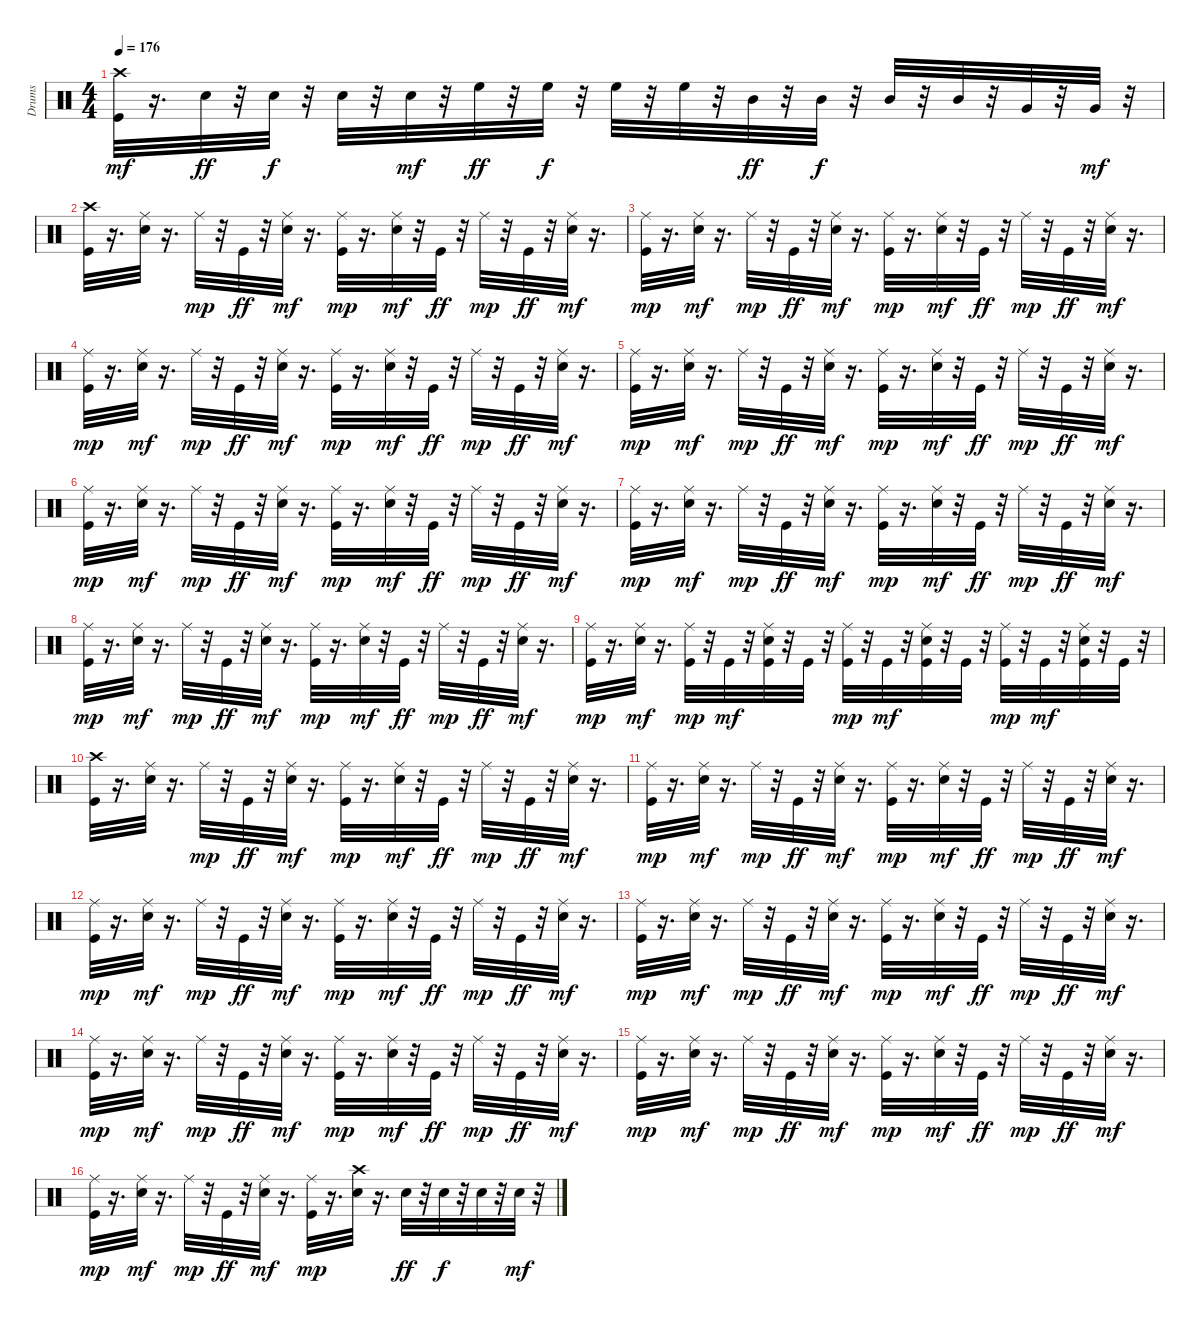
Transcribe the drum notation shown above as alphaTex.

\track ("Drums" "Drums") {instrument percussion}
\staff {score}
\articulation defaults
\ts (4 4)
\tempo 176
\clef neutral
\ks c
("Kick (hit)" "Crash high (hit)").32{dy mf} r.16{d} "Snare (hit) 2".32{dy ff} r.32 "Snare (hit) 2".32{dy f} r.32 "Snare (hit) 2".32 r.32 "Snare (hit) 2".32{dy mf} r.32 "High Floor Tom (hit)".32{dy ff} r.32 "High Floor Tom (hit)".32{dy f} r.32 "High Floor Tom (hit)".32 r.32 "High Floor Tom (hit)".32 r.32 "Mid Tom (hit)".32{dy ff} r.32 "Mid Tom (hit)".32{dy f} r.32 "Mid Tom (hit)".32 r.32 "Mid Tom (hit)".32 r.32 "Very Low Tom (hit)".32 r.32 "Very Low Tom (hit)".32{dy mf} r.32 |
("Kick (hit)" "Crash high (hit)").32 r.16{d} ("Snare (hit) 2" "Ride (middle)").32 r.16{d} "Ride (middle)".32{dy mp} r.32 "Kick (hit)".32{dy ff} r.32 ("Snare (hit) 2" "Ride (middle)").32{dy mf} r.16{d} ("Kick (hit)" "Ride (middle)").32{dy mp} r.16{d} ("Snare (hit) 2" "Ride (middle)").32{dy mf} r.32 "Kick (hit)".32{dy ff} r.32 "Ride (middle)".32{dy mp} r.32 "Kick (hit)".32{dy ff} r.32 ("Snare (hit) 2" "Ride (middle)").32{dy mf} r.16{d} |
("Kick (hit)" "Ride (middle)").32{dy mp} r.16{d} ("Snare (hit) 2" "Ride (middle)").32{dy mf} r.16{d} "Ride (middle)".32{dy mp} r.32 "Kick (hit)".32{dy ff} r.32 ("Snare (hit) 2" "Ride (middle)").32{dy mf} r.16{d} ("Kick (hit)" "Ride (middle)").32{dy mp} r.16{d} ("Snare (hit) 2" "Ride (middle)").32{dy mf} r.32 "Kick (hit)".32{dy ff} r.32 "Ride (middle)".32{dy mp} r.32 "Kick (hit)".32{dy ff} r.32 ("Snare (hit) 2" "Ride (middle)").32{dy mf} r.16{d} |
("Kick (hit)" "Ride (middle)").32{dy mp} r.16{d} ("Snare (hit) 2" "Ride (middle)").32{dy mf} r.16{d} "Ride (middle)".32{dy mp} r.32 "Kick (hit)".32{dy ff} r.32 ("Snare (hit) 2" "Ride (middle)").32{dy mf} r.16{d} ("Kick (hit)" "Ride (middle)").32{dy mp} r.16{d} ("Snare (hit) 2" "Ride (middle)").32{dy mf} r.32 "Kick (hit)".32{dy ff} r.32 "Ride (middle)".32{dy mp} r.32 "Kick (hit)".32{dy ff} r.32 ("Snare (hit) 2" "Ride (middle)").32{dy mf} r.16{d} |
("Kick (hit)" "Ride (middle)").32{dy mp} r.16{d} ("Snare (hit) 2" "Ride (middle)").32{dy mf} r.16{d} "Ride (middle)".32{dy mp} r.32 "Kick (hit)".32{dy ff} r.32 ("Snare (hit) 2" "Ride (middle)").32{dy mf} r.16{d} ("Kick (hit)" "Ride (middle)").32{dy mp} r.16{d} ("Snare (hit) 2" "Ride (middle)").32{dy mf} r.32 "Kick (hit)".32{dy ff} r.32 "Ride (middle)".32{dy mp} r.32 "Kick (hit)".32{dy ff} r.32 ("Snare (hit) 2" "Ride (middle)").32{dy mf} r.16{d} |
("Kick (hit)" "Ride (middle)").32{dy mp} r.16{d} ("Snare (hit) 2" "Ride (middle)").32{dy mf} r.16{d} "Ride (middle)".32{dy mp} r.32 "Kick (hit)".32{dy ff} r.32 ("Snare (hit) 2" "Ride (middle)").32{dy mf} r.16{d} ("Kick (hit)" "Ride (middle)").32{dy mp} r.16{d} ("Snare (hit) 2" "Ride (middle)").32{dy mf} r.32 "Kick (hit)".32{dy ff} r.32 "Ride (middle)".32{dy mp} r.32 "Kick (hit)".32{dy ff} r.32 ("Snare (hit) 2" "Ride (middle)").32{dy mf} r.16{d} |
("Kick (hit)" "Ride (middle)").32{dy mp} r.16{d} ("Snare (hit) 2" "Ride (middle)").32{dy mf} r.16{d} "Ride (middle)".32{dy mp} r.32 "Kick (hit)".32{dy ff} r.32 ("Snare (hit) 2" "Ride (middle)").32{dy mf} r.16{d} ("Kick (hit)" "Ride (middle)").32{dy mp} r.16{d} ("Snare (hit) 2" "Ride (middle)").32{dy mf} r.32 "Kick (hit)".32{dy ff} r.32 "Ride (middle)".32{dy mp} r.32 "Kick (hit)".32{dy ff} r.32 ("Snare (hit) 2" "Ride (middle)").32{dy mf} r.16{d} |
("Kick (hit)" "Ride (middle)").32{dy mp} r.16{d} ("Snare (hit) 2" "Ride (middle)").32{dy mf} r.16{d} "Ride (middle)".32{dy mp} r.32 "Kick (hit)".32{dy ff} r.32 ("Snare (hit) 2" "Ride (middle)").32{dy mf} r.16{d} ("Kick (hit)" "Ride (middle)").32{dy mp} r.16{d} ("Snare (hit) 2" "Ride (middle)").32{dy mf} r.32 "Kick (hit)".32{dy ff} r.32 "Ride (middle)".32{dy mp} r.32 "Kick (hit)".32{dy ff} r.32 ("Snare (hit) 2" "Ride (middle)").32{dy mf} r.16{d} |
("Kick (hit)" "Ride (middle)").32{dy mp} r.16{d} ("Snare (hit) 2" "Ride (middle)").32{dy mf} r.16{d} ("Kick (hit)" "Ride (middle)").32{dy mp} r.32 "Kick (hit)".32{dy mf} r.32 ("Kick (hit)" "Snare (hit) 2" "Ride (middle)").32 r.32 "Kick (hit)".32 r.32 ("Kick (hit)" "Ride (middle)").32{dy mp} r.32 "Kick (hit)".32{dy mf} r.32 ("Kick (hit)" "Snare (hit) 2" "Ride (middle)").32 r.32 "Kick (hit)".32 r.32 ("Kick (hit)" "Ride (middle)").32{dy mp} r.32 "Kick (hit)".32{dy mf} r.32 ("Kick (hit)" "Snare (hit) 2" "Ride (middle)").32 r.32 "Kick (hit)".32 r.32 |
("Kick (hit)" "Crash high (hit)").32 r.16{d} ("Snare (hit) 2" "Ride (middle)").32 r.16{d} "Ride (middle)".32{dy mp} r.32 "Kick (hit)".32{dy ff} r.32 ("Snare (hit) 2" "Ride (middle)").32{dy mf} r.16{d} ("Kick (hit)" "Ride (middle)").32{dy mp} r.16{d} ("Snare (hit) 2" "Ride (middle)").32{dy mf} r.32 "Kick (hit)".32{dy ff} r.32 "Ride (middle)".32{dy mp} r.32 "Kick (hit)".32{dy ff} r.32 ("Snare (hit) 2" "Ride (middle)").32{dy mf} r.16{d} |
("Kick (hit)" "Ride (middle)").32{dy mp} r.16{d} ("Snare (hit) 2" "Ride (middle)").32{dy mf} r.16{d} "Ride (middle)".32{dy mp} r.32 "Kick (hit)".32{dy ff} r.32 ("Snare (hit) 2" "Ride (middle)").32{dy mf} r.16{d} ("Kick (hit)" "Ride (middle)").32{dy mp} r.16{d} ("Snare (hit) 2" "Ride (middle)").32{dy mf} r.32 "Kick (hit)".32{dy ff} r.32 "Ride (middle)".32{dy mp} r.32 "Kick (hit)".32{dy ff} r.32 ("Snare (hit) 2" "Ride (middle)").32{dy mf} r.16{d} |
("Kick (hit)" "Ride (middle)").32{dy mp} r.16{d} ("Snare (hit) 2" "Ride (middle)").32{dy mf} r.16{d} "Ride (middle)".32{dy mp} r.32 "Kick (hit)".32{dy ff} r.32 ("Snare (hit) 2" "Ride (middle)").32{dy mf} r.16{d} ("Kick (hit)" "Ride (middle)").32{dy mp} r.16{d} ("Snare (hit) 2" "Ride (middle)").32{dy mf} r.32 "Kick (hit)".32{dy ff} r.32 "Ride (middle)".32{dy mp} r.32 "Kick (hit)".32{dy ff} r.32 ("Snare (hit) 2" "Ride (middle)").32{dy mf} r.16{d} |
("Kick (hit)" "Ride (middle)").32{dy mp} r.16{d} ("Snare (hit) 2" "Ride (middle)").32{dy mf} r.16{d} "Ride (middle)".32{dy mp} r.32 "Kick (hit)".32{dy ff} r.32 ("Snare (hit) 2" "Ride (middle)").32{dy mf} r.16{d} ("Kick (hit)" "Ride (middle)").32{dy mp} r.16{d} ("Snare (hit) 2" "Ride (middle)").32{dy mf} r.32 "Kick (hit)".32{dy ff} r.32 "Ride (middle)".32{dy mp} r.32 "Kick (hit)".32{dy ff} r.32 ("Snare (hit) 2" "Ride (middle)").32{dy mf} r.16{d} |
("Kick (hit)" "Ride (middle)").32{dy mp} r.16{d} ("Snare (hit) 2" "Ride (middle)").32{dy mf} r.16{d} "Ride (middle)".32{dy mp} r.32 "Kick (hit)".32{dy ff} r.32 ("Snare (hit) 2" "Ride (middle)").32{dy mf} r.16{d} ("Kick (hit)" "Ride (middle)").32{dy mp} r.16{d} ("Snare (hit) 2" "Ride (middle)").32{dy mf} r.32 "Kick (hit)".32{dy ff} r.32 "Ride (middle)".32{dy mp} r.32 "Kick (hit)".32{dy ff} r.32 ("Snare (hit) 2" "Ride (middle)").32{dy mf} r.16{d} |
("Kick (hit)" "Ride (middle)").32{dy mp} r.16{d} ("Snare (hit) 2" "Ride (middle)").32{dy mf} r.16{d} "Ride (middle)".32{dy mp} r.32 "Kick (hit)".32{dy ff} r.32 ("Snare (hit) 2" "Ride (middle)").32{dy mf} r.16{d} ("Kick (hit)" "Ride (middle)").32{dy mp} r.16{d} ("Snare (hit) 2" "Ride (middle)").32{dy mf} r.32 "Kick (hit)".32{dy ff} r.32 "Ride (middle)".32{dy mp} r.32 "Kick (hit)".32{dy ff} r.32 ("Snare (hit) 2" "Ride (middle)").32{dy mf} r.16{d} |
("Kick (hit)" "Ride (middle)").32{dy mp} r.16{d} ("Snare (hit) 2" "Ride (middle)").32{dy mf} r.16{d} "Ride (middle)".32{dy mp} r.32 "Kick (hit)".32{dy ff} r.32 ("Snare (hit) 2" "Ride (middle)").32{dy mf} r.16{d} ("Kick (hit)" "Ride (middle)").32{dy mp} r.16{d} ("Snare (hit) 2" "Crash high (hit)").32 r.16{d} "Snare (hit) 2".32{dy ff} r.32 "Snare (hit) 2".32{dy f} r.32 "Snare (hit) 2".32 r.32 "Snare (hit) 2".32{dy mf} r.32
